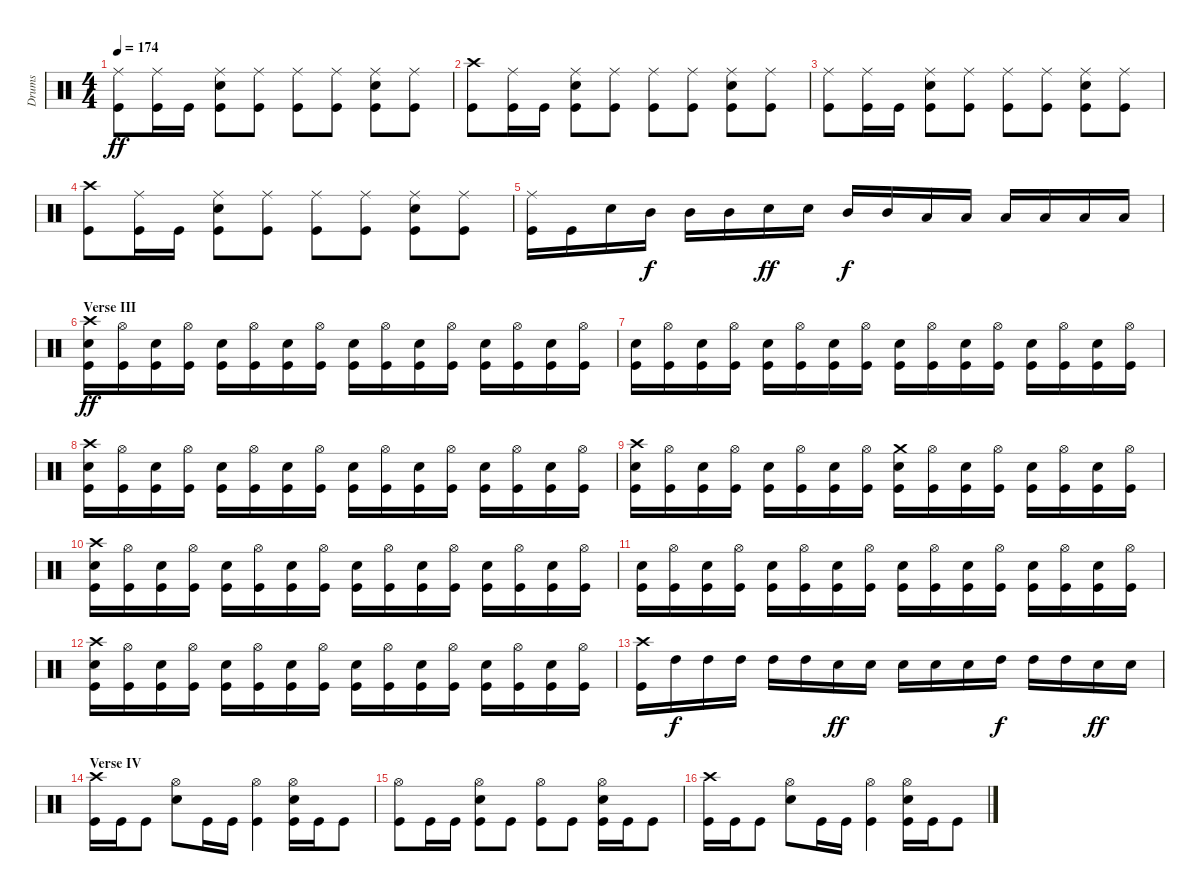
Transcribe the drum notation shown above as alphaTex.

\track ("Drums" "Drums") {instrument percussion}
\staff {score}
\articulation defaults
\ts (4 4)
\tempo 174
\clef neutral
\ks c
("Ride (middle)" "Kick (hit)").8{dy ff} ("Ride (middle)" "Kick (hit)").16 "Kick (hit)".16 ("Ride (middle)" "Electric Snare (hit)" "Kick (hit)").8 ("Ride (middle)" "Kick (hit)").8 ("Ride (middle)" "Kick (hit)").8 ("Ride (middle)" "Kick (hit)").8 ("Ride (middle)" "Electric Snare (hit)" "Kick (hit)").8 ("Ride (middle)" "Kick (hit)").8 |
("Crash high (hit)" "Kick (hit)").8 ("Ride (middle)" "Kick (hit)").16 "Kick (hit)".16 ("Ride (middle)" "Electric Snare (hit)" "Kick (hit)").8 ("Ride (middle)" "Kick (hit)").8 ("Ride (middle)" "Kick (hit)").8 ("Ride (middle)" "Kick (hit)").8 ("Ride (middle)" "Electric Snare (hit)" "Kick (hit)").8 ("Ride (middle)" "Kick (hit)").8 |
("Ride (middle)" "Kick (hit)").8 ("Ride (middle)" "Kick (hit)").16 "Kick (hit)".16 ("Ride (middle)" "Electric Snare (hit)" "Kick (hit)").8 ("Ride (middle)" "Kick (hit)").8 ("Ride (middle)" "Kick (hit)").8 ("Ride (middle)" "Kick (hit)").8 ("Ride (middle)" "Electric Snare (hit)" "Kick (hit)").8 ("Ride (middle)" "Kick (hit)").8 |
("Crash high (hit)" "Kick (hit)").8 ("Ride (middle)" "Kick (hit)").16 "Kick (hit)".16 ("Ride (middle)" "Electric Snare (hit)" "Kick (hit)").8 ("Ride (middle)" "Kick (hit)").8 ("Ride (middle)" "Kick (hit)").8 ("Ride (middle)" "Kick (hit)").8 ("Ride (middle)" "Electric Snare (hit)" "Kick (hit)").8 ("Ride (middle)" "Kick (hit)").8 |
("Ride (middle)" "Kick (hit)").16 "Kick (hit)".16 "Electric Snare (hit)".16 "Mid Tom (hit)".16{dy f} "Mid Tom (hit)".16 "Mid Tom (hit)".16 "Electric Snare (hit)".16{dy ff} "Electric Snare (hit)".16 "Mid Tom (hit)".16{dy f} "Mid Tom (hit)".16 "Low Tom (hit)".16 "Low Tom (hit)".16 "Low Tom (hit)".16 "Low Tom (hit)".16 "Low Tom (hit)".16 "Low Tom (hit)".16 |
\section ("" "Verse III")
("Crash high (hit)" "Electric Snare (hit)" "Kick (hit)").16{dy ff} ("Hi-Hat (open)" "Kick (hit)").16 ("Electric Snare (hit)" "Kick (hit)").16 ("Hi-Hat (open)" "Kick (hit)").16 ("Electric Snare (hit)" "Kick (hit)").16 ("Hi-Hat (open)" "Kick (hit)").16 ("Electric Snare (hit)" "Kick (hit)").16 ("Hi-Hat (open)" "Kick (hit)").16 ("Electric Snare (hit)" "Kick (hit)").16 ("Hi-Hat (open)" "Kick (hit)").16 ("Electric Snare (hit)" "Kick (hit)").16 ("Hi-Hat (open)" "Kick (hit)").16 ("Electric Snare (hit)" "Kick (hit)").16 ("Hi-Hat (open)" "Kick (hit)").16 ("Electric Snare (hit)" "Kick (hit)").16 ("Hi-Hat (open)" "Kick (hit)").16 |
("Electric Snare (hit)" "Kick (hit)").16 ("Hi-Hat (open)" "Kick (hit)").16 ("Electric Snare (hit)" "Kick (hit)").16 ("Hi-Hat (open)" "Kick (hit)").16 ("Electric Snare (hit)" "Kick (hit)").16 ("Hi-Hat (open)" "Kick (hit)").16 ("Electric Snare (hit)" "Kick (hit)").16 ("Hi-Hat (open)" "Kick (hit)").16 ("Electric Snare (hit)" "Kick (hit)").16 ("Hi-Hat (open)" "Kick (hit)").16 ("Electric Snare (hit)" "Kick (hit)").16 ("Hi-Hat (open)" "Kick (hit)").16 ("Electric Snare (hit)" "Kick (hit)").16 ("Hi-Hat (open)" "Kick (hit)").16 ("Electric Snare (hit)" "Kick (hit)").16 ("Hi-Hat (open)" "Kick (hit)").16 |
("Crash high (hit)" "Electric Snare (hit)" "Kick (hit)").16 ("Hi-Hat (open)" "Kick (hit)").16 ("Electric Snare (hit)" "Kick (hit)").16 ("Hi-Hat (open)" "Kick (hit)").16 ("Electric Snare (hit)" "Kick (hit)").16 ("Hi-Hat (open)" "Kick (hit)").16 ("Electric Snare (hit)" "Kick (hit)").16 ("Hi-Hat (open)" "Kick (hit)").16 ("Electric Snare (hit)" "Kick (hit)").16 ("Hi-Hat (open)" "Kick (hit)").16 ("Electric Snare (hit)" "Kick (hit)").16 ("Hi-Hat (open)" "Kick (hit)").16 ("Electric Snare (hit)" "Kick (hit)").16 ("Hi-Hat (open)" "Kick (hit)").16 ("Electric Snare (hit)" "Kick (hit)").16 ("Hi-Hat (open)" "Kick (hit)").16 |
("Crash high (hit)" "Electric Snare (hit)" "Kick (hit)").16 ("Hi-Hat (open)" "Kick (hit)").16 ("Electric Snare (hit)" "Kick (hit)").16 ("Hi-Hat (open)" "Kick (hit)").16 ("Electric Snare (hit)" "Kick (hit)").16 ("Hi-Hat (open)" "Kick (hit)").16 ("Electric Snare (hit)" "Kick (hit)").16 ("Hi-Hat (open)" "Kick (hit)").16 ("Crash medium (hit)" "Electric Snare (hit)" "Kick (hit)").16 ("Hi-Hat (open)" "Kick (hit)").16 ("Electric Snare (hit)" "Kick (hit)").16 ("Hi-Hat (open)" "Kick (hit)").16 ("Electric Snare (hit)" "Kick (hit)").16 ("Hi-Hat (open)" "Kick (hit)").16 ("Electric Snare (hit)" "Kick (hit)").16 ("Hi-Hat (open)" "Kick (hit)").16 |
("Crash high (hit)" "Electric Snare (hit)" "Kick (hit)").16 ("Hi-Hat (open)" "Kick (hit)").16 ("Electric Snare (hit)" "Kick (hit)").16 ("Hi-Hat (open)" "Kick (hit)").16 ("Electric Snare (hit)" "Kick (hit)").16 ("Hi-Hat (open)" "Kick (hit)").16 ("Electric Snare (hit)" "Kick (hit)").16 ("Hi-Hat (open)" "Kick (hit)").16 ("Electric Snare (hit)" "Kick (hit)").16 ("Hi-Hat (open)" "Kick (hit)").16 ("Electric Snare (hit)" "Kick (hit)").16 ("Hi-Hat (open)" "Kick (hit)").16 ("Electric Snare (hit)" "Kick (hit)").16 ("Hi-Hat (open)" "Kick (hit)").16 ("Electric Snare (hit)" "Kick (hit)").16 ("Hi-Hat (open)" "Kick (hit)").16 |
("Electric Snare (hit)" "Kick (hit)").16 ("Hi-Hat (open)" "Kick (hit)").16 ("Electric Snare (hit)" "Kick (hit)").16 ("Hi-Hat (open)" "Kick (hit)").16 ("Electric Snare (hit)" "Kick (hit)").16 ("Hi-Hat (open)" "Kick (hit)").16 ("Electric Snare (hit)" "Kick (hit)").16 ("Hi-Hat (open)" "Kick (hit)").16 ("Electric Snare (hit)" "Kick (hit)").16 ("Hi-Hat (open)" "Kick (hit)").16 ("Electric Snare (hit)" "Kick (hit)").16 ("Hi-Hat (open)" "Kick (hit)").16 ("Electric Snare (hit)" "Kick (hit)").16 ("Hi-Hat (open)" "Kick (hit)").16 ("Electric Snare (hit)" "Kick (hit)").16 ("Hi-Hat (open)" "Kick (hit)").16 |
("Crash high (hit)" "Electric Snare (hit)" "Kick (hit)").16 ("Hi-Hat (open)" "Kick (hit)").16 ("Electric Snare (hit)" "Kick (hit)").16 ("Hi-Hat (open)" "Kick (hit)").16 ("Electric Snare (hit)" "Kick (hit)").16 ("Hi-Hat (open)" "Kick (hit)").16 ("Electric Snare (hit)" "Kick (hit)").16 ("Hi-Hat (open)" "Kick (hit)").16 ("Electric Snare (hit)" "Kick (hit)").16 ("Hi-Hat (open)" "Kick (hit)").16 ("Electric Snare (hit)" "Kick (hit)").16 ("Hi-Hat (open)" "Kick (hit)").16 ("Electric Snare (hit)" "Kick (hit)").16 ("Hi-Hat (open)" "Kick (hit)").16 ("Electric Snare (hit)" "Kick (hit)").16 ("Hi-Hat (open)" "Kick (hit)").16 |
("Crash high (hit)" "Kick (hit)").16 "High Tom (hit)".16{dy f} "High Tom (hit)".16 "High Tom (hit)".16 "High Tom (hit)".16 "High Tom (hit)".16 "Electric Snare (hit)".16{dy ff} "Electric Snare (hit)".16 "Electric Snare (hit)".16 "Electric Snare (hit)".16 "Electric Snare (hit)".16 "High Tom (hit)".16{dy f} "High Tom (hit)".16 "High Tom (hit)".16 "Electric Snare (hit)".16{dy ff} "Electric Snare (hit)".16 |
\section ("" "Verse IV")
("Crash high (hit)" "Kick (hit)").16 "Kick (hit)".16 "Kick (hit)".8 ("Hi-Hat (open)" "Electric Snare (hit)").8 "Kick (hit)".16 "Kick (hit)".16 ("Hi-Hat (open)" "Kick (hit)").4 ("Hi-Hat (open)" "Electric Snare (hit)" "Kick (hit)").16 "Kick (hit)".16 "Kick (hit)".8 |
("Hi-Hat (open)" "Kick (hit)").8 "Kick (hit)".16 "Kick (hit)".16 ("Hi-Hat (open)" "Electric Snare (hit)" "Kick (hit)").8 "Kick (hit)".8 ("Hi-Hat (open)" "Kick (hit)").8 "Kick (hit)".8 ("Hi-Hat (open)" "Electric Snare (hit)" "Kick (hit)").16 "Kick (hit)".16 "Kick (hit)".8 |
("Crash high (hit)" "Kick (hit)").16 "Kick (hit)".16 "Kick (hit)".8 ("Hi-Hat (open)" "Electric Snare (hit)").8 "Kick (hit)".16 "Kick (hit)".16 ("Hi-Hat (open)" "Kick (hit)").4 ("Hi-Hat (open)" "Electric Snare (hit)" "Kick (hit)").16 "Kick (hit)".16 "Kick (hit)".8
